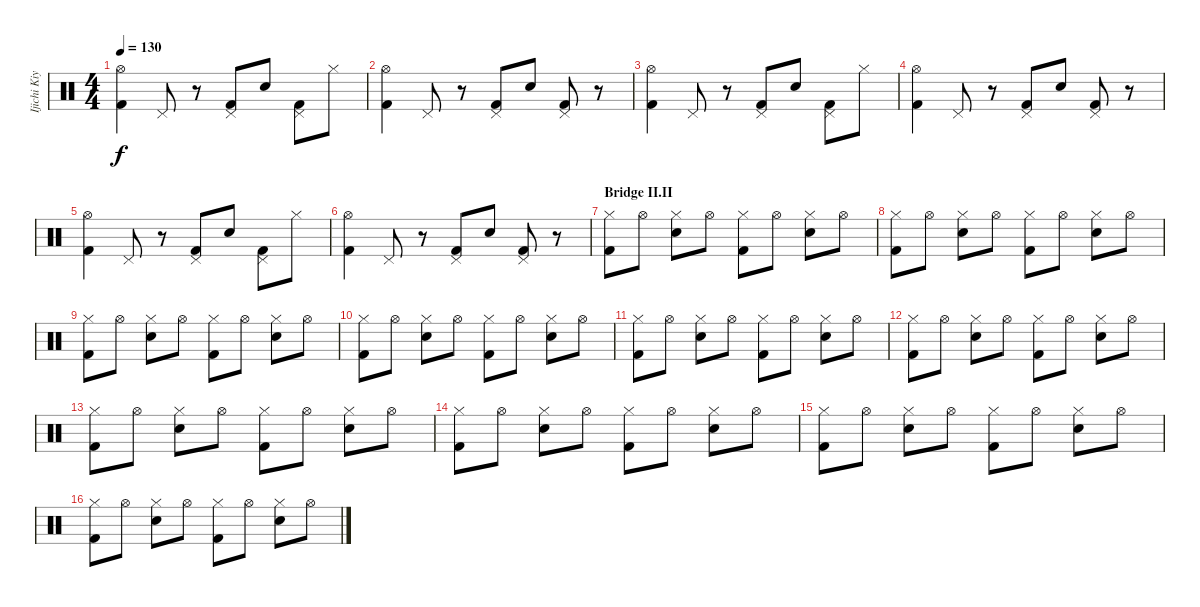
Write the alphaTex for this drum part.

\track ("Ijichi Kiyoshi (Drums)" "Ijichi Kiy") {instrument percussion}
\staff {score}
\articulation defaults
\ts (4 4)
\tempo 130
\clef neutral
\ks c
("Hi-Hat (open)" "Kick (hit) 2").4{dy f} "Pedal Hi-Hat (hit)".8 r.8 ("Pedal Hi-Hat (hit)" "Kick (hit) 2").8 "Snare (hit) 2".8 ("Pedal Hi-Hat (hit)" "Kick (hit) 2").8 "Hi-Hat (closed)".8 |
("Hi-Hat (open)" "Kick (hit) 2").4 "Pedal Hi-Hat (hit)".8 r.8 ("Pedal Hi-Hat (hit)" "Kick (hit) 2").8 "Snare (hit) 2".8 ("Pedal Hi-Hat (hit)" "Kick (hit) 2").8 r.8 |
("Hi-Hat (open)" "Kick (hit) 2").4 "Pedal Hi-Hat (hit)".8 r.8 ("Pedal Hi-Hat (hit)" "Kick (hit) 2").8 "Snare (hit) 2".8 ("Pedal Hi-Hat (hit)" "Kick (hit) 2").8 "Hi-Hat (closed)".8 |
("Hi-Hat (open)" "Kick (hit) 2").4 "Pedal Hi-Hat (hit)".8 r.8 ("Pedal Hi-Hat (hit)" "Kick (hit) 2").8 "Snare (hit) 2".8 ("Pedal Hi-Hat (hit)" "Kick (hit) 2").8 r.8 |
("Hi-Hat (open)" "Kick (hit) 2").4 "Pedal Hi-Hat (hit)".8 r.8 ("Pedal Hi-Hat (hit)" "Kick (hit) 2").8 "Snare (hit) 2".8 ("Pedal Hi-Hat (hit)" "Kick (hit) 2").8 "Hi-Hat (closed)".8 |
("Hi-Hat (open)" "Kick (hit) 2").4 "Pedal Hi-Hat (hit)".8 r.8 ("Pedal Hi-Hat (hit)" "Kick (hit) 2").8 "Snare (hit) 2".8 ("Pedal Hi-Hat (hit)" "Kick (hit) 2").8 r.8 |
\section ("" "Bridge II.II")
("Hi-Hat (closed)" "Kick (hit) 2").8 "Hi-Hat (open)".8 ("Hi-Hat (closed)" "Snare (hit) 2").8 "Hi-Hat (open)".8 ("Hi-Hat (closed)" "Kick (hit) 2").8 "Hi-Hat (open)".8 ("Hi-Hat (closed)" "Snare (hit) 2").8 "Hi-Hat (open)".8 |
("Hi-Hat (closed)" "Kick (hit) 2").8 "Hi-Hat (open)".8 ("Hi-Hat (closed)" "Snare (hit) 2").8 "Hi-Hat (open)".8 ("Hi-Hat (closed)" "Kick (hit) 2").8 "Hi-Hat (open)".8 ("Hi-Hat (closed)" "Snare (hit) 2").8 "Hi-Hat (open)".8 |
("Hi-Hat (closed)" "Kick (hit) 2").8 "Hi-Hat (open)".8 ("Hi-Hat (closed)" "Snare (hit) 2").8 "Hi-Hat (open)".8 ("Hi-Hat (closed)" "Kick (hit) 2").8 "Hi-Hat (open)".8 ("Hi-Hat (closed)" "Snare (hit) 2").8 "Hi-Hat (open)".8 |
("Hi-Hat (closed)" "Kick (hit) 2").8 "Hi-Hat (open)".8 ("Hi-Hat (closed)" "Snare (hit) 2").8 "Hi-Hat (open)".8 ("Hi-Hat (closed)" "Kick (hit) 2").8 "Hi-Hat (open)".8 ("Hi-Hat (closed)" "Snare (hit) 2").8 "Hi-Hat (open)".8 |
("Hi-Hat (closed)" "Kick (hit) 2").8 "Hi-Hat (open)".8 ("Hi-Hat (closed)" "Snare (hit) 2").8 "Hi-Hat (open)".8 ("Hi-Hat (closed)" "Kick (hit) 2").8 "Hi-Hat (open)".8 ("Hi-Hat (closed)" "Snare (hit) 2").8 "Hi-Hat (open)".8 |
("Hi-Hat (closed)" "Kick (hit) 2").8 "Hi-Hat (open)".8 ("Hi-Hat (closed)" "Snare (hit) 2").8 "Hi-Hat (open)".8 ("Hi-Hat (closed)" "Kick (hit) 2").8 "Hi-Hat (open)".8 ("Hi-Hat (closed)" "Snare (hit) 2").8 "Hi-Hat (open)".8 |
("Hi-Hat (closed)" "Kick (hit) 2").8 "Hi-Hat (open)".8 ("Hi-Hat (closed)" "Snare (hit) 2").8 "Hi-Hat (open)".8 ("Hi-Hat (closed)" "Kick (hit) 2").8 "Hi-Hat (open)".8 ("Hi-Hat (closed)" "Snare (hit) 2").8 "Hi-Hat (open)".8 |
("Hi-Hat (closed)" "Kick (hit) 2").8 "Hi-Hat (open)".8 ("Hi-Hat (closed)" "Snare (hit) 2").8 "Hi-Hat (open)".8 ("Hi-Hat (closed)" "Kick (hit) 2").8 "Hi-Hat (open)".8 ("Hi-Hat (closed)" "Snare (hit) 2").8 "Hi-Hat (open)".8 |
("Hi-Hat (closed)" "Kick (hit) 2").8 "Hi-Hat (open)".8 ("Hi-Hat (closed)" "Snare (hit) 2").8 "Hi-Hat (open)".8 ("Hi-Hat (closed)" "Kick (hit) 2").8 "Hi-Hat (open)".8 ("Hi-Hat (closed)" "Snare (hit) 2").8 "Hi-Hat (open)".8 |
("Hi-Hat (closed)" "Kick (hit) 2").8 "Hi-Hat (open)".8 ("Hi-Hat (closed)" "Snare (hit) 2").8 "Hi-Hat (open)".8 ("Hi-Hat (closed)" "Kick (hit) 2").8 "Hi-Hat (open)".8 ("Hi-Hat (closed)" "Snare (hit) 2").8 "Hi-Hat (open)".8
